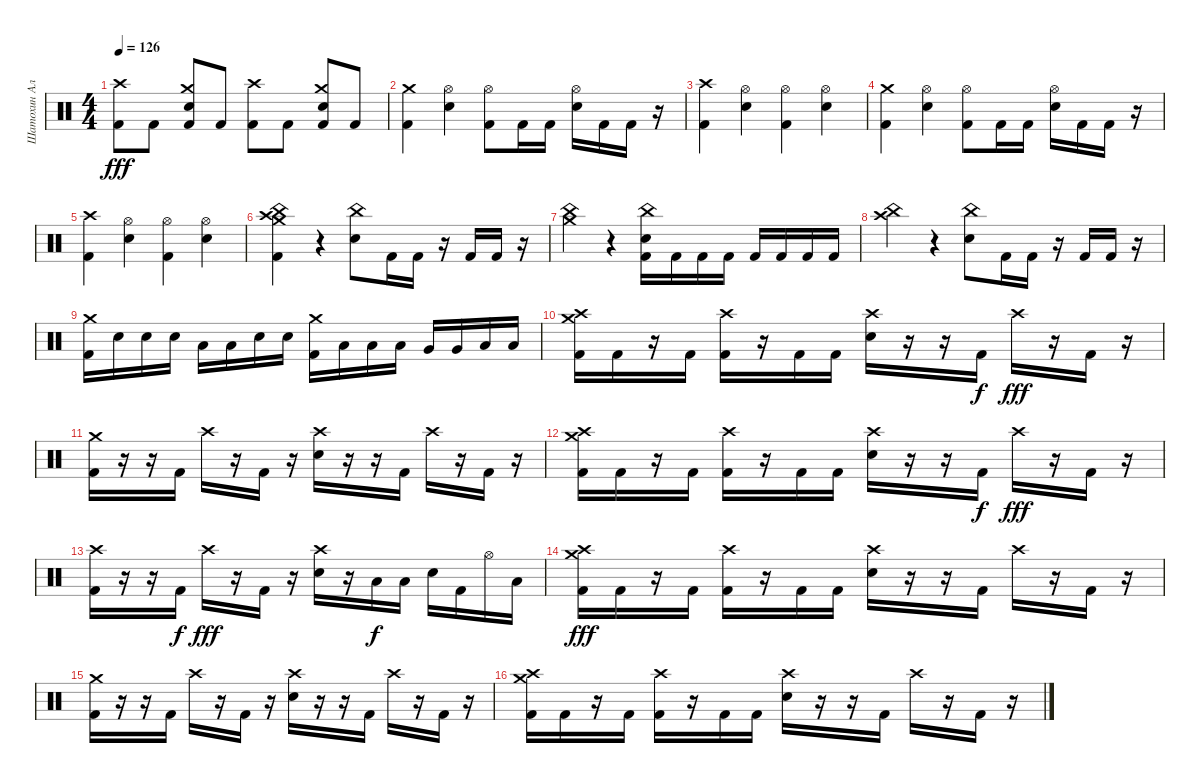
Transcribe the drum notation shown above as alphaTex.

\track ("Шатохин Алексей" "Шатохин Ал") {instrument percussion}
\staff {score}
\articulation defaults
\ts (4 4)
\tempo 126
\clef neutral
\ks c
("Crash high (hit)" "Kick (hit) 2").8{dy fff} "Kick (hit) 2".8 ("Crash medium (hit)" "Electric Snare (hit)" "Kick (hit) 2").8 "Kick (hit) 2".8 ("Crash high (hit)" "Kick (hit) 2").8 "Kick (hit) 2".8 ("Crash medium (hit)" "Electric Snare (hit)" "Kick (hit) 2").8 "Kick (hit) 2".8 |
("Crash medium (hit)" "Kick (hit) 2").4 ("Hi-Hat (open)" "Electric Snare (hit)").4 ("Hi-Hat (open)" "Kick (hit) 2").8 "Kick (hit) 2".16 "Kick (hit) 2".16 ("Hi-Hat (open)" "Electric Snare (hit)").16 "Kick (hit) 2".16 "Kick (hit) 2".16 r.16 |
("Crash high (hit)" "Kick (hit) 2").4 ("Hi-Hat (open)" "Electric Snare (hit)").4 ("Hi-Hat (open)" "Kick (hit) 2").4 ("Hi-Hat (open)" "Electric Snare (hit)").4 |
("Crash medium (hit)" "Kick (hit) 2").4 ("Hi-Hat (open)" "Electric Snare (hit)").4 ("Hi-Hat (open)" "Kick (hit) 2").8 "Kick (hit) 2".16 "Kick (hit) 2".16 ("Hi-Hat (open)" "Electric Snare (hit)").16 "Kick (hit) 2".16 "Kick (hit) 2".16 r.16 |
("Crash high (hit)" "Kick (hit) 2").4 ("Hi-Hat (open)" "Electric Snare (hit)").4 ("Hi-Hat (open)" "Kick (hit) 2").4 ("Hi-Hat (open)" "Electric Snare (hit)").4 |
("Crash high (hit)" "Crash medium (hit)" "China (hit)" "Kick (hit) 2").4 r.4 ("China (hit)" "Electric Snare (hit)").8 "Kick (hit) 2".16 "Kick (hit) 2".16 r.16 "Kick (hit) 2".16 "Kick (hit) 2".16 r.16 |
("China (hit)" "Crash medium (hit)").4 r.4 ("China (hit)" "Electric Snare (hit)" "Kick (hit) 2").16 "Kick (hit) 2".16 "Kick (hit) 2".16 "Kick (hit) 2".16 "Kick (hit) 2".16 "Kick (hit) 2".16 "Kick (hit) 2".16 "Kick (hit) 2".16 |
("Crash high (hit)" "China (hit)").4 r.4 ("China (hit)" "Electric Snare (hit)").8 "Kick (hit) 2".16 "Kick (hit) 2".16 r.16 "Kick (hit) 2".16 "Kick (hit) 2".16 r.16 |
("Crash medium (hit)" "Kick (hit) 2").16 "Electric Snare (hit)".16 "Electric Snare (hit)".16 "Electric Snare (hit)".16 "Low Tom (hit)".16 "Low Tom (hit)".16 "Electric Snare (hit)".16 "Electric Snare (hit)".16 ("Crash medium (hit)" "Kick (hit) 2").16 "Low Tom (hit)".16 "Low Tom (hit)".16 "Low Tom (hit)".16 "Very Low Tom (hit)".16 "Very Low Tom (hit)".16 "Low Floor Tom (hit)".16 "Low Floor Tom (hit)".16 |
("Crash high (hit)" "Crash medium (hit)" "Kick (hit) 2").16 "Kick (hit) 2".16 r.16 "Kick (hit) 2".16 ("Crash high (hit)" "Kick (hit) 2").16 r.16 "Kick (hit) 2".16 "Kick (hit) 2".16 ("Crash high (hit)" "Electric Snare (hit)").16 r.16 r.16 "Kick (hit) 2".16{dy f} "Crash high (hit)".16{dy fff} r.16 "Kick (hit) 2".16 r.16 |
("Crash medium (hit)" "Kick (hit) 2").16 r.16 r.16 "Kick (hit) 2".16 "Crash high (hit)".16 r.16 "Kick (hit) 2".16 r.16 ("Crash high (hit)" "Electric Snare (hit)").16 r.16 r.16 "Kick (hit) 2".16 "Crash high (hit)".16 r.16 "Kick (hit) 2".16 r.16 |
("Crash high (hit)" "Crash medium (hit)" "Kick (hit) 2").16 "Kick (hit) 2".16 r.16 "Kick (hit) 2".16 ("Crash high (hit)" "Kick (hit) 2").16 r.16 "Kick (hit) 2".16 "Kick (hit) 2".16 ("Crash high (hit)" "Electric Snare (hit)").16 r.16 r.16 "Kick (hit) 2".16{dy f} "Crash high (hit)".16{dy fff} r.16 "Kick (hit) 2".16 r.16 |
("Crash high (hit)" "Kick (hit) 2").16 r.16 r.16 "Kick (hit) 2".16{dy f} "Crash high (hit)".16{dy fff} r.16 "Kick (hit) 2".16 r.16 ("Crash high (hit)" "Electric Snare (hit)").16 r.16 "Low Tom (hit)".16{dy f} "Low Tom (hit)".16 "Electric Snare (hit)".16 "Kick (hit) 2".16 "Hi-Hat (open)".16 "Low Tom (hit)".16 |
("Crash high (hit)" "Crash medium (hit)" "Kick (hit) 2").16{dy fff} "Kick (hit) 2".16 r.16 "Kick (hit) 2".16 ("Crash high (hit)" "Kick (hit) 2").16 r.16 "Kick (hit) 2".16 "Kick (hit) 2".16 ("Crash high (hit)" "Electric Snare (hit)").16 r.16 r.16 "Kick (hit) 2".16 "Crash high (hit)".16 r.16 "Kick (hit) 2".16 r.16 |
("Crash medium (hit)" "Kick (hit) 2").16 r.16 r.16 "Kick (hit) 2".16 "Crash high (hit)".16 r.16 "Kick (hit) 2".16 r.16 ("Crash high (hit)" "Electric Snare (hit)").16 r.16 r.16 "Kick (hit) 2".16 "Crash high (hit)".16 r.16 "Kick (hit) 2".16 r.16 |
("Crash high (hit)" "Crash medium (hit)" "Kick (hit) 2").16 "Kick (hit) 2".16 r.16 "Kick (hit) 2".16 ("Crash high (hit)" "Kick (hit) 2").16 r.16 "Kick (hit) 2".16 "Kick (hit) 2".16 ("Crash high (hit)" "Electric Snare (hit)").16 r.16 r.16 "Kick (hit) 2".16 "Crash high (hit)".16 r.16 "Kick (hit) 2".16 r.16
